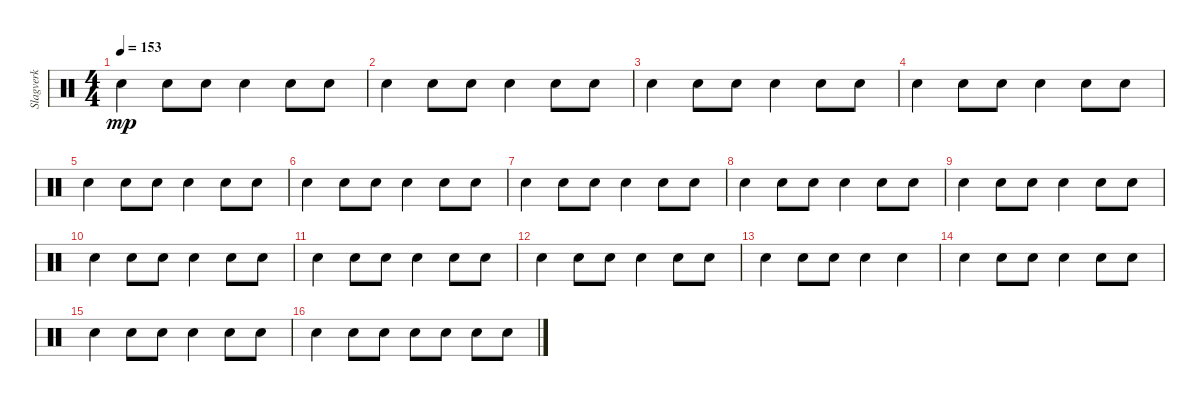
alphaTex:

\track ("Slagverk" "Slagverk") {instrument percussion}
\staff {score}
\articulation defaults
\ts (4 4)
\tempo 153
\clef neutral
\ks c "Snare (hit) 2".4{dy mp} "Snare (hit) 2".8 "Snare (hit) 2".8 "Snare (hit) 2".4 "Snare (hit) 2".8 "Snare (hit) 2".8
|
"Snare (hit) 2".4 "Snare (hit) 2".8 "Snare (hit) 2".8 "Snare (hit) 2".4 "Snare (hit) 2".8 "Snare (hit) 2".8 |
"Snare (hit) 2".4 "Snare (hit) 2".8 "Snare (hit) 2".8 "Snare (hit) 2".4 "Snare (hit) 2".8 "Snare (hit) 2".8 |
"Snare (hit) 2".4 "Snare (hit) 2".8 "Snare (hit) 2".8 "Snare (hit) 2".4 "Snare (hit) 2".8 "Snare (hit) 2".8 |
"Snare (hit) 2".4 "Snare (hit) 2".8 "Snare (hit) 2".8 "Snare (hit) 2".4 "Snare (hit) 2".8 "Snare (hit) 2".8 |
"Snare (hit) 2".4 "Snare (hit) 2".8 "Snare (hit) 2".8 "Snare (hit) 2".4 "Snare (hit) 2".8 "Snare (hit) 2".8 |
"Snare (hit) 2".4 "Snare (hit) 2".8 "Snare (hit) 2".8 "Snare (hit) 2".4 "Snare (hit) 2".8 "Snare (hit) 2".8 |
"Snare (hit) 2".4 "Snare (hit) 2".8 "Snare (hit) 2".8 "Snare (hit) 2".4 "Snare (hit) 2".8 "Snare (hit) 2".8 |
"Snare (hit) 2".4 "Snare (hit) 2".8 "Snare (hit) 2".8 "Snare (hit) 2".4 "Snare (hit) 2".8 "Snare (hit) 2".8 |
"Snare (hit) 2".4 "Snare (hit) 2".8 "Snare (hit) 2".8 "Snare (hit) 2".4 "Snare (hit) 2".8 "Snare (hit) 2".8 |
"Snare (hit) 2".4 "Snare (hit) 2".8 "Snare (hit) 2".8 "Snare (hit) 2".4 "Snare (hit) 2".8 "Snare (hit) 2".8 |
"Snare (hit) 2".4 "Snare (hit) 2".8 "Snare (hit) 2".8 "Snare (hit) 2".4 "Snare (hit) 2".8 "Snare (hit) 2".8 |
"Snare (hit) 2".4 "Snare (hit) 2".8 "Snare (hit) 2".8 "Snare (hit) 2".4 "Snare (hit) 2".4 |
"Snare (hit) 2".4 "Snare (hit) 2".8 "Snare (hit) 2".8 "Snare (hit) 2".4 "Snare (hit) 2".8 "Snare (hit) 2".8 |
"Snare (hit) 2".4 "Snare (hit) 2".8 "Snare (hit) 2".8 "Snare (hit) 2".4 "Snare (hit) 2".8 "Snare (hit) 2".8 |
"Snare (hit) 2".4 "Snare (hit) 2".8 "Snare (hit) 2".8 "Snare (hit) 2".8 "Snare (hit) 2".8 "Snare (hit) 2".8 "Snare (hit) 2".8
